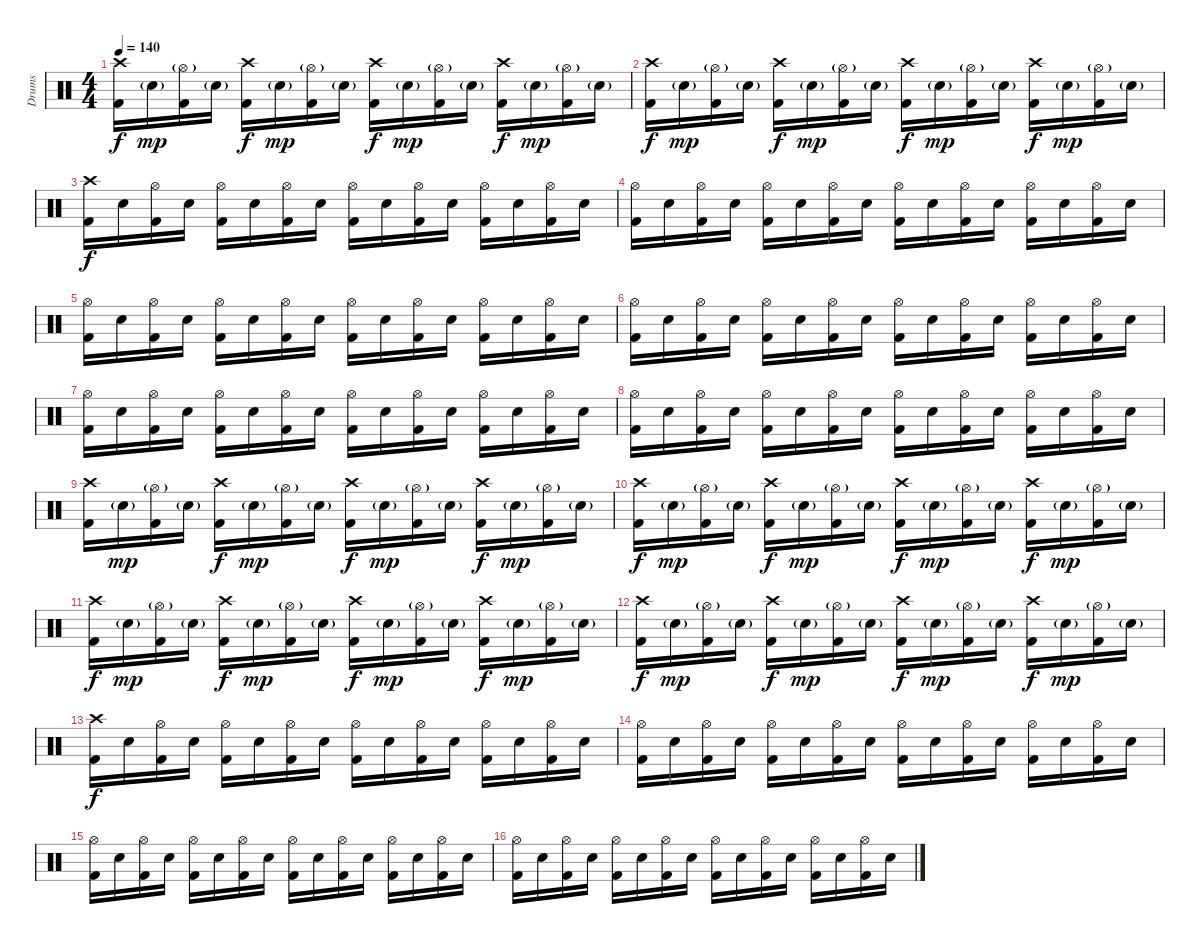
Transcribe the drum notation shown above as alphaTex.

\track ("Drums" "Drums") {instrument percussion}
\staff {score}
\articulation defaults
\ts (4 4)
\tempo 140
\clef neutral
\ks c
("Kick (hit) 2" "Crash high (hit)").16{dy f} "Electric Snare (hit)"{g}.16{dy mp} ("Kick (hit) 2" "Hi-Hat (open)"{g}).16 "Electric Snare (hit)"{g}.16 ("Kick (hit) 2" "Crash high (hit)").16{dy f} "Electric Snare (hit)"{g}.16{dy mp} ("Kick (hit) 2" "Hi-Hat (open)"{g}).16 "Electric Snare (hit)"{g}.16 ("Kick (hit) 2" "Crash high (hit)").16{dy f} "Electric Snare (hit)"{g}.16{dy mp} ("Kick (hit) 2" "Hi-Hat (open)"{g}).16 "Electric Snare (hit)"{g}.16 ("Kick (hit) 2" "Crash high (hit)").16{dy f} "Electric Snare (hit)"{g}.16{dy mp} ("Kick (hit) 2" "Hi-Hat (open)"{g}).16 "Electric Snare (hit)"{g}.16 |
("Kick (hit) 2" "Crash high (hit)").16{dy f} "Electric Snare (hit)"{g}.16{dy mp} ("Kick (hit) 2" "Hi-Hat (open)"{g}).16 "Electric Snare (hit)"{g}.16 ("Kick (hit) 2" "Crash high (hit)").16{dy f} "Electric Snare (hit)"{g}.16{dy mp} ("Kick (hit) 2" "Hi-Hat (open)"{g}).16 "Electric Snare (hit)"{g}.16 ("Kick (hit) 2" "Crash high (hit)").16{dy f} "Electric Snare (hit)"{g}.16{dy mp} ("Kick (hit) 2" "Hi-Hat (open)"{g}).16 "Electric Snare (hit)"{g}.16 ("Kick (hit) 2" "Crash high (hit)").16{dy f} "Electric Snare (hit)"{g}.16{dy mp} ("Kick (hit) 2" "Hi-Hat (open)"{g}).16 "Electric Snare (hit)"{g}.16 |
("Kick (hit) 2" "Crash high (hit)").16{dy f} "Electric Snare (hit)".16 ("Kick (hit) 2" "Hi-Hat (open)").16 "Electric Snare (hit)".16 ("Kick (hit) 2" "Hi-Hat (open)").16 "Electric Snare (hit)".16 ("Kick (hit) 2" "Hi-Hat (open)").16 "Electric Snare (hit)".16 ("Kick (hit) 2" "Hi-Hat (open)").16 "Electric Snare (hit)".16 ("Kick (hit) 2" "Hi-Hat (open)").16 "Electric Snare (hit)".16 ("Kick (hit) 2" "Hi-Hat (open)").16 "Electric Snare (hit)".16 ("Kick (hit) 2" "Hi-Hat (open)").16 "Electric Snare (hit)".16 |
("Kick (hit) 2" "Hi-Hat (open)").16 "Electric Snare (hit)".16 ("Kick (hit) 2" "Hi-Hat (open)").16 "Electric Snare (hit)".16 ("Kick (hit) 2" "Hi-Hat (open)").16 "Electric Snare (hit)".16 ("Kick (hit) 2" "Hi-Hat (open)").16 "Electric Snare (hit)".16 ("Kick (hit) 2" "Hi-Hat (open)").16 "Electric Snare (hit)".16 ("Kick (hit) 2" "Hi-Hat (open)").16 "Electric Snare (hit)".16 ("Kick (hit) 2" "Hi-Hat (open)").16 "Electric Snare (hit)".16 ("Kick (hit) 2" "Hi-Hat (open)").16 "Electric Snare (hit)".16 |
("Kick (hit) 2" "Hi-Hat (open)").16 "Electric Snare (hit)".16 ("Kick (hit) 2" "Hi-Hat (open)").16 "Electric Snare (hit)".16 ("Kick (hit) 2" "Hi-Hat (open)").16 "Electric Snare (hit)".16 ("Kick (hit) 2" "Hi-Hat (open)").16 "Electric Snare (hit)".16 ("Kick (hit) 2" "Hi-Hat (open)").16 "Electric Snare (hit)".16 ("Kick (hit) 2" "Hi-Hat (open)").16 "Electric Snare (hit)".16 ("Kick (hit) 2" "Hi-Hat (open)").16 "Electric Snare (hit)".16 ("Kick (hit) 2" "Hi-Hat (open)").16 "Electric Snare (hit)".16 |
("Kick (hit) 2" "Hi-Hat (open)").16 "Electric Snare (hit)".16 ("Kick (hit) 2" "Hi-Hat (open)").16 "Electric Snare (hit)".16 ("Kick (hit) 2" "Hi-Hat (open)").16 "Electric Snare (hit)".16 ("Kick (hit) 2" "Hi-Hat (open)").16 "Electric Snare (hit)".16 ("Kick (hit) 2" "Hi-Hat (open)").16 "Electric Snare (hit)".16 ("Kick (hit) 2" "Hi-Hat (open)").16 "Electric Snare (hit)".16 ("Kick (hit) 2" "Hi-Hat (open)").16 "Electric Snare (hit)".16 ("Kick (hit) 2" "Hi-Hat (open)").16 "Electric Snare (hit)".16 |
("Kick (hit) 2" "Hi-Hat (open)").16 "Electric Snare (hit)".16 ("Kick (hit) 2" "Hi-Hat (open)").16 "Electric Snare (hit)".16 ("Kick (hit) 2" "Hi-Hat (open)").16 "Electric Snare (hit)".16 ("Kick (hit) 2" "Hi-Hat (open)").16 "Electric Snare (hit)".16 ("Kick (hit) 2" "Hi-Hat (open)").16 "Electric Snare (hit)".16 ("Kick (hit) 2" "Hi-Hat (open)").16 "Electric Snare (hit)".16 ("Kick (hit) 2" "Hi-Hat (open)").16 "Electric Snare (hit)".16 ("Kick (hit) 2" "Hi-Hat (open)").16 "Electric Snare (hit)".16 |
("Kick (hit) 2" "Hi-Hat (open)").16 "Electric Snare (hit)".16 ("Kick (hit) 2" "Hi-Hat (open)").16 "Electric Snare (hit)".16 ("Kick (hit) 2" "Hi-Hat (open)").16 "Electric Snare (hit)".16 ("Kick (hit) 2" "Hi-Hat (open)").16 "Electric Snare (hit)".16 ("Kick (hit) 2" "Hi-Hat (open)").16 "Electric Snare (hit)".16 ("Kick (hit) 2" "Hi-Hat (open)").16 "Electric Snare (hit)".16 ("Kick (hit) 2" "Hi-Hat (open)").16 "Electric Snare (hit)".16 ("Kick (hit) 2" "Hi-Hat (open)").16 "Electric Snare (hit)".16 |
("Kick (hit) 2" "Crash high (hit)").16 "Electric Snare (hit)"{g}.16{dy mp} ("Kick (hit) 2" "Hi-Hat (open)"{g}).16 "Electric Snare (hit)"{g}.16 ("Kick (hit) 2" "Crash high (hit)").16{dy f} "Electric Snare (hit)"{g}.16{dy mp} ("Kick (hit) 2" "Hi-Hat (open)"{g}).16 "Electric Snare (hit)"{g}.16 ("Kick (hit) 2" "Crash high (hit)").16{dy f} "Electric Snare (hit)"{g}.16{dy mp} ("Kick (hit) 2" "Hi-Hat (open)"{g}).16 "Electric Snare (hit)"{g}.16 ("Kick (hit) 2" "Crash high (hit)").16{dy f} "Electric Snare (hit)"{g}.16{dy mp} ("Kick (hit) 2" "Hi-Hat (open)"{g}).16 "Electric Snare (hit)"{g}.16 |
("Kick (hit) 2" "Crash high (hit)").16{dy f} "Electric Snare (hit)"{g}.16{dy mp} ("Kick (hit) 2" "Hi-Hat (open)"{g}).16 "Electric Snare (hit)"{g}.16 ("Kick (hit) 2" "Crash high (hit)").16{dy f} "Electric Snare (hit)"{g}.16{dy mp} ("Kick (hit) 2" "Hi-Hat (open)"{g}).16 "Electric Snare (hit)"{g}.16 ("Kick (hit) 2" "Crash high (hit)").16{dy f} "Electric Snare (hit)"{g}.16{dy mp} ("Kick (hit) 2" "Hi-Hat (open)"{g}).16 "Electric Snare (hit)"{g}.16 ("Kick (hit) 2" "Crash high (hit)").16{dy f} "Electric Snare (hit)"{g}.16{dy mp} ("Kick (hit) 2" "Hi-Hat (open)"{g}).16 "Electric Snare (hit)"{g}.16 |
("Kick (hit) 2" "Crash high (hit)").16{dy f} "Electric Snare (hit)"{g}.16{dy mp} ("Kick (hit) 2" "Hi-Hat (open)"{g}).16 "Electric Snare (hit)"{g}.16 ("Kick (hit) 2" "Crash high (hit)").16{dy f} "Electric Snare (hit)"{g}.16{dy mp} ("Kick (hit) 2" "Hi-Hat (open)"{g}).16 "Electric Snare (hit)"{g}.16 ("Kick (hit) 2" "Crash high (hit)").16{dy f} "Electric Snare (hit)"{g}.16{dy mp} ("Kick (hit) 2" "Hi-Hat (open)"{g}).16 "Electric Snare (hit)"{g}.16 ("Kick (hit) 2" "Crash high (hit)").16{dy f} "Electric Snare (hit)"{g}.16{dy mp} ("Kick (hit) 2" "Hi-Hat (open)"{g}).16 "Electric Snare (hit)"{g}.16 |
("Kick (hit) 2" "Crash high (hit)").16{dy f} "Electric Snare (hit)"{g}.16{dy mp} ("Kick (hit) 2" "Hi-Hat (open)"{g}).16 "Electric Snare (hit)"{g}.16 ("Kick (hit) 2" "Crash high (hit)").16{dy f} "Electric Snare (hit)"{g}.16{dy mp} ("Kick (hit) 2" "Hi-Hat (open)"{g}).16 "Electric Snare (hit)"{g}.16 ("Kick (hit) 2" "Crash high (hit)").16{dy f} "Electric Snare (hit)"{g}.16{dy mp} ("Kick (hit) 2" "Hi-Hat (open)"{g}).16 "Electric Snare (hit)"{g}.16 ("Kick (hit) 2" "Crash high (hit)").16{dy f} "Electric Snare (hit)"{g}.16{dy mp} ("Kick (hit) 2" "Hi-Hat (open)"{g}).16 "Electric Snare (hit)"{g}.16 |
("Kick (hit) 2" "Crash high (hit)").16{dy f} "Electric Snare (hit)".16 ("Kick (hit) 2" "Hi-Hat (open)").16 "Electric Snare (hit)".16 ("Kick (hit) 2" "Hi-Hat (open)").16 "Electric Snare (hit)".16 ("Kick (hit) 2" "Hi-Hat (open)").16 "Electric Snare (hit)".16 ("Kick (hit) 2" "Hi-Hat (open)").16 "Electric Snare (hit)".16 ("Kick (hit) 2" "Hi-Hat (open)").16 "Electric Snare (hit)".16 ("Kick (hit) 2" "Hi-Hat (open)").16 "Electric Snare (hit)".16 ("Kick (hit) 2" "Hi-Hat (open)").16 "Electric Snare (hit)".16 |
("Kick (hit) 2" "Hi-Hat (open)").16 "Electric Snare (hit)".16 ("Kick (hit) 2" "Hi-Hat (open)").16 "Electric Snare (hit)".16 ("Kick (hit) 2" "Hi-Hat (open)").16 "Electric Snare (hit)".16 ("Kick (hit) 2" "Hi-Hat (open)").16 "Electric Snare (hit)".16 ("Kick (hit) 2" "Hi-Hat (open)").16 "Electric Snare (hit)".16 ("Kick (hit) 2" "Hi-Hat (open)").16 "Electric Snare (hit)".16 ("Kick (hit) 2" "Hi-Hat (open)").16 "Electric Snare (hit)".16 ("Kick (hit) 2" "Hi-Hat (open)").16 "Electric Snare (hit)".16 |
("Kick (hit) 2" "Hi-Hat (open)").16 "Electric Snare (hit)".16 ("Kick (hit) 2" "Hi-Hat (open)").16 "Electric Snare (hit)".16 ("Kick (hit) 2" "Hi-Hat (open)").16 "Electric Snare (hit)".16 ("Kick (hit) 2" "Hi-Hat (open)").16 "Electric Snare (hit)".16 ("Kick (hit) 2" "Hi-Hat (open)").16 "Electric Snare (hit)".16 ("Kick (hit) 2" "Hi-Hat (open)").16 "Electric Snare (hit)".16 ("Kick (hit) 2" "Hi-Hat (open)").16 "Electric Snare (hit)".16 ("Kick (hit) 2" "Hi-Hat (open)").16 "Electric Snare (hit)".16 |
("Kick (hit) 2" "Hi-Hat (open)").16 "Electric Snare (hit)".16 ("Kick (hit) 2" "Hi-Hat (open)").16 "Electric Snare (hit)".16 ("Kick (hit) 2" "Hi-Hat (open)").16 "Electric Snare (hit)".16 ("Kick (hit) 2" "Hi-Hat (open)").16 "Electric Snare (hit)".16 ("Kick (hit) 2" "Hi-Hat (open)").16 "Electric Snare (hit)".16 ("Kick (hit) 2" "Hi-Hat (open)").16 "Electric Snare (hit)".16 ("Kick (hit) 2" "Hi-Hat (open)").16 "Electric Snare (hit)".16 ("Kick (hit) 2" "Hi-Hat (open)").16 "Electric Snare (hit)".16
